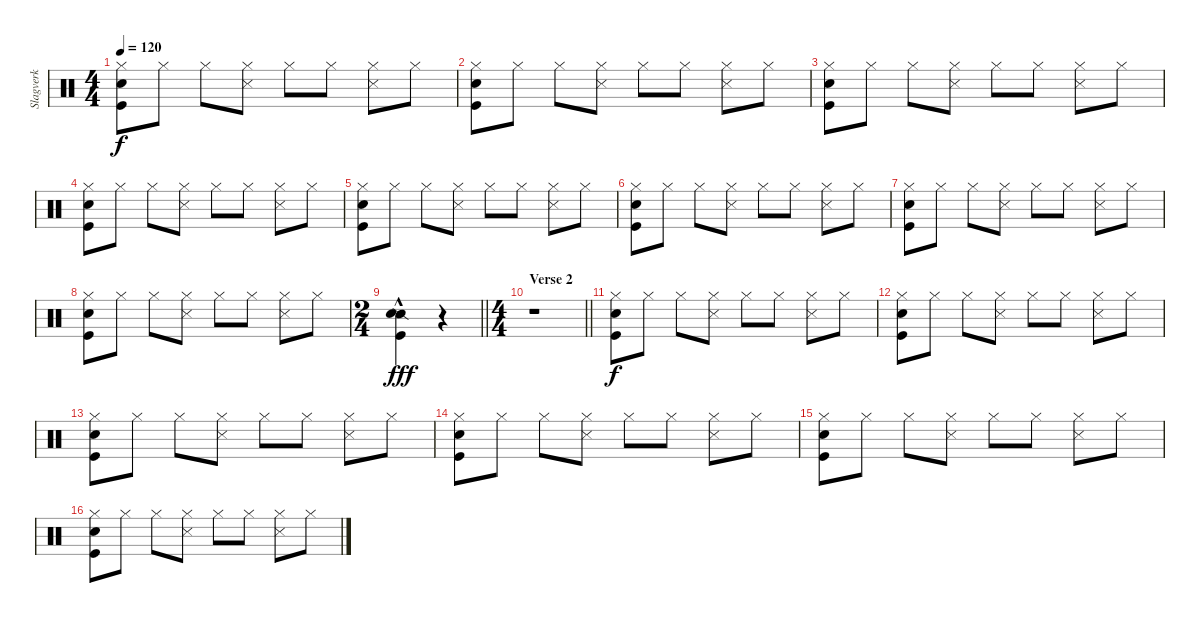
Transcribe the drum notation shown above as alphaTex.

\track ("Slagverk" "Slagverk") {instrument percussion}
\staff {score}
\articulation defaults
\ts (4 4)
\tempo 120
\clef neutral
\ks aminor
("Hi-Hat (closed)" "Snare (hit) 2" "Kick (hit)").8{dy f} "Hi-Hat (closed)".8 "Hi-Hat (closed)".8 ("Hi-Hat (closed)" "Snare (side stick) 3").8 "Hi-Hat (closed)".8 "Hi-Hat (closed)".8 ("Hi-Hat (closed)" "Snare (side stick) 3").8 "Hi-Hat (closed)".8 |
("Hi-Hat (closed)" "Snare (hit) 2" "Kick (hit)").8 "Hi-Hat (closed)".8 "Hi-Hat (closed)".8 ("Hi-Hat (closed)" "Snare (side stick) 3").8 "Hi-Hat (closed)".8 "Hi-Hat (closed)".8 ("Hi-Hat (closed)" "Snare (side stick) 3").8 "Hi-Hat (closed)".8 |
("Hi-Hat (closed)" "Snare (hit) 2" "Kick (hit)").8 "Hi-Hat (closed)".8 "Hi-Hat (closed)".8 ("Hi-Hat (closed)" "Snare (side stick) 3").8 "Hi-Hat (closed)".8 "Hi-Hat (closed)".8 ("Hi-Hat (closed)" "Snare (side stick) 3").8 "Hi-Hat (closed)".8 |
("Hi-Hat (closed)" "Snare (hit) 2" "Kick (hit)").8 "Hi-Hat (closed)".8 "Hi-Hat (closed)".8 ("Hi-Hat (closed)" "Snare (side stick) 3").8 "Hi-Hat (closed)".8 "Hi-Hat (closed)".8 ("Hi-Hat (closed)" "Snare (side stick) 3").8 "Hi-Hat (closed)".8 |
("Hi-Hat (closed)" "Snare (hit) 2" "Kick (hit)").8 "Hi-Hat (closed)".8 "Hi-Hat (closed)".8 ("Hi-Hat (closed)" "Snare (side stick) 3").8 "Hi-Hat (closed)".8 "Hi-Hat (closed)".8 ("Hi-Hat (closed)" "Snare (side stick) 3").8 "Hi-Hat (closed)".8 |
("Hi-Hat (closed)" "Snare (hit) 2" "Kick (hit)").8 "Hi-Hat (closed)".8 "Hi-Hat (closed)".8 ("Hi-Hat (closed)" "Snare (side stick) 3").8 "Hi-Hat (closed)".8 "Hi-Hat (closed)".8 ("Hi-Hat (closed)" "Snare (side stick) 3").8 "Hi-Hat (closed)".8 |
("Hi-Hat (closed)" "Snare (hit) 2" "Kick (hit)").8 "Hi-Hat (closed)".8 "Hi-Hat (closed)".8 ("Hi-Hat (closed)" "Snare (side stick) 3").8 "Hi-Hat (closed)".8 "Hi-Hat (closed)".8 ("Hi-Hat (closed)" "Snare (side stick) 3").8 "Hi-Hat (closed)".8 |
("Hi-Hat (closed)" "Snare (hit) 2" "Kick (hit)").8 "Hi-Hat (closed)".8 "Hi-Hat (closed)".8 ("Hi-Hat (closed)" "Snare (side stick) 3").8 "Hi-Hat (closed)".8 "Hi-Hat (closed)".8 ("Hi-Hat (closed)" "Snare (side stick) 3").8 "Hi-Hat (closed)".8 |
\ts (2 4)
\barLineRight lightlight
("Snare (side stick) 2"{hac} "Snare (hit) 2"{hac} "Kick (hit)"{hac}).4{dy fff} r.4 |
\ts (4 4)
\section ("" "Verse 2")
\barLineRight lightlight
r.1 |
("Hi-Hat (closed)" "Snare (hit) 2" "Kick (hit)").8{dy f} "Hi-Hat (closed)".8 "Hi-Hat (closed)".8 ("Hi-Hat (closed)" "Snare (side stick) 3").8 "Hi-Hat (closed)".8 "Hi-Hat (closed)".8 ("Hi-Hat (closed)" "Snare (side stick) 3").8 "Hi-Hat (closed)".8 |
("Hi-Hat (closed)" "Snare (hit) 2" "Kick (hit)").8 "Hi-Hat (closed)".8 "Hi-Hat (closed)".8 ("Hi-Hat (closed)" "Snare (side stick) 3").8 "Hi-Hat (closed)".8 "Hi-Hat (closed)".8 ("Hi-Hat (closed)" "Snare (side stick) 3").8 "Hi-Hat (closed)".8 |
("Hi-Hat (closed)" "Snare (hit) 2" "Kick (hit)").8 "Hi-Hat (closed)".8 "Hi-Hat (closed)".8 ("Hi-Hat (closed)" "Snare (side stick) 3").8 "Hi-Hat (closed)".8 "Hi-Hat (closed)".8 ("Hi-Hat (closed)" "Snare (side stick) 3").8 "Hi-Hat (closed)".8 |
("Hi-Hat (closed)" "Snare (hit) 2" "Kick (hit)").8 "Hi-Hat (closed)".8 "Hi-Hat (closed)".8 ("Hi-Hat (closed)" "Snare (side stick) 3").8 "Hi-Hat (closed)".8 "Hi-Hat (closed)".8 ("Hi-Hat (closed)" "Snare (side stick) 3").8 "Hi-Hat (closed)".8 |
("Hi-Hat (closed)" "Snare (hit) 2" "Kick (hit)").8 "Hi-Hat (closed)".8 "Hi-Hat (closed)".8 ("Hi-Hat (closed)" "Snare (side stick) 3").8 "Hi-Hat (closed)".8 "Hi-Hat (closed)".8 ("Hi-Hat (closed)" "Snare (side stick) 3").8 "Hi-Hat (closed)".8 |
("Hi-Hat (closed)" "Snare (hit) 2" "Kick (hit)").8 "Hi-Hat (closed)".8 "Hi-Hat (closed)".8 ("Hi-Hat (closed)" "Snare (side stick) 3").8 "Hi-Hat (closed)".8 "Hi-Hat (closed)".8 ("Hi-Hat (closed)" "Snare (side stick) 3").8 "Hi-Hat (closed)".8
